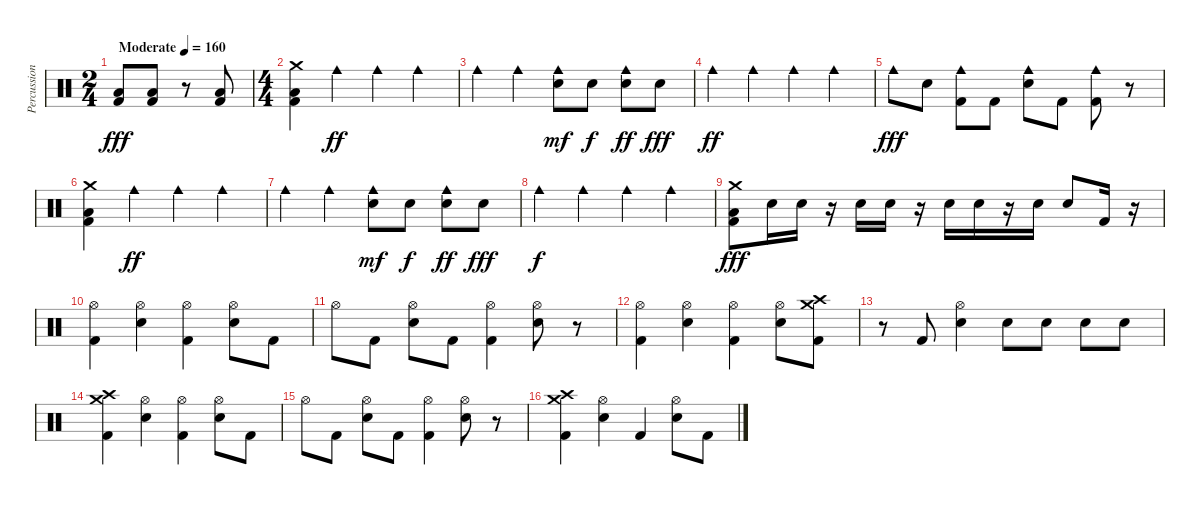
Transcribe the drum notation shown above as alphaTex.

\track ("Percussion" "Percussion") {instrument percussion}
\staff {score}
\articulation defaults
\ts (2 4)
\tempo (160 "Moderate")
\clef neutral
\ks c
("Low Floor Tom (hit)" "Kick (hit) 2").8{dy fff} ("Low Floor Tom (hit)" "Kick (hit) 2").8 r.8 ("Low Floor Tom (hit)" "Kick (hit) 2").8 |
\ts (4 4)
("Crash medium (hit)" "Low Floor Tom (hit)" "Kick (hit) 2").4 "Cowbell medium (hit)".4{dy ff} "Cowbell medium (hit)".4 "Cowbell medium (hit)".4 |
"Cowbell medium (hit)".4 "Cowbell medium (hit)".4 ("Cowbell medium (hit)" "Snare (hit) 2").8{dy mf} "Snare (hit) 2".8{dy f} ("Cowbell medium (hit)" "Snare (hit) 2").8{dy ff} "Snare (hit) 2".8{dy fff} |
"Cowbell medium (hit)".4{dy ff} "Cowbell medium (hit)".4 "Cowbell medium (hit)".4 "Cowbell medium (hit)".4 |
"Cowbell medium (hit)".8{dy fff} "Snare (hit) 2".8 ("Cowbell medium (hit)" "Kick (hit) 2").8 "Kick (hit) 2".8 ("Cowbell medium (hit)" "Snare (hit) 2").8 "Kick (hit) 2".8 ("Cowbell medium (hit)" "Kick (hit) 2").8 r.8 |
("Crash medium (hit)" "Low Floor Tom (hit)" "Kick (hit) 2").4 "Cowbell medium (hit)".4{dy ff} "Cowbell medium (hit)".4 "Cowbell medium (hit)".4 |
"Cowbell medium (hit)".4 "Cowbell medium (hit)".4 ("Cowbell medium (hit)" "Snare (hit) 2").8{dy mf} "Snare (hit) 2".8{dy f} ("Cowbell medium (hit)" "Snare (hit) 2").8{dy ff} "Snare (hit) 2".8{dy fff} |
"Cowbell medium (hit)".4{dy f} "Cowbell medium (hit)".4 "Cowbell medium (hit)".4 "Cowbell medium (hit)".4 |
("Crash medium (hit)" "Low Floor Tom (hit)" "Kick (hit) 2").8{dy fff} "Snare (hit) 2".16 "Snare (hit) 2".16 r.16 "Snare (hit) 2".16 "Snare (hit) 2".16 r.16 "Snare (hit) 2".16 "Snare (hit) 2".16 r.16 "Snare (hit) 2".16 "Snare (hit) 2".8 "Kick (hit) 2".16 r.16 |
("Hi-Hat (open)" "Kick (hit) 2").4 ("Hi-Hat (open)" "Snare (hit) 2").4 ("Hi-Hat (open)" "Kick (hit) 2").4 ("Hi-Hat (open)" "Snare (hit) 2").8 "Kick (hit) 2".8 |
"Hi-Hat (open)".8 "Kick (hit) 2".8 ("Hi-Hat (open)" "Snare (hit) 2").8 "Kick (hit) 2".8 ("Hi-Hat (open)" "Kick (hit) 2").4 ("Hi-Hat (open)" "Snare (hit) 2").8 r.8 |
("Hi-Hat (open)" "Kick (hit) 2").4 ("Hi-Hat (open)" "Snare (hit) 2").4 ("Hi-Hat (open)" "Kick (hit) 2").4 ("Hi-Hat (open)" "Snare (hit) 2").8 ("Crash medium (hit)" "Crash high (hit)" "Kick (hit) 2").8 |
r.8 "Kick (hit) 2".8 ("Hi-Hat (open)" "Snare (hit) 2").4 "Snare (hit) 2".8 "Snare (hit) 2".8 "Snare (hit) 2".8 "Snare (hit) 2".8 |
("Crash medium (hit)" "Crash high (hit)" "Kick (hit) 2").4 ("Hi-Hat (open)" "Snare (hit) 2").4 ("Hi-Hat (open)" "Kick (hit) 2").4 ("Hi-Hat (open)" "Snare (hit) 2").8 "Kick (hit) 2".8 |
"Hi-Hat (open)".8 "Kick (hit) 2".8 ("Hi-Hat (open)" "Snare (hit) 2").8 "Kick (hit) 2".8 ("Hi-Hat (open)" "Kick (hit) 2").4 ("Hi-Hat (open)" "Snare (hit) 2").8 r.8 |
("Crash medium (hit)" "Crash high (hit)" "Kick (hit) 2").4 ("Hi-Hat (open)" "Snare (hit) 2").4 "Kick (hit) 2".4 ("Hi-Hat (open)" "Snare (hit) 2").8 "Kick (hit) 2".8
